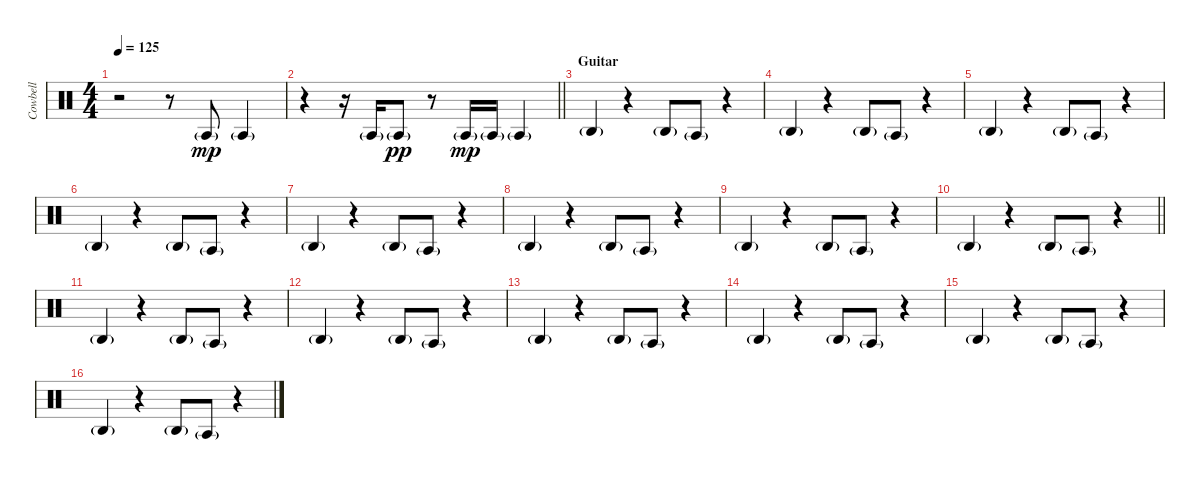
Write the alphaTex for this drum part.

\track ("Cowbell" "Cowbell") {instrument percussion}
\staff {score}
\articulation defaults
\ts (4 4)
\tempo 125
\clef neutral
\ks c
r.2{dy mp} r.8 "Agogo tow (hit)"{g}.8 "Agogo tow (hit)"{g}.4 |
\barLineRight lightlight
r.4 r.16 "Agogo tow (hit)"{g}.16 "Agogo tow (hit)"{g}.8{dy pp} r.8 "Agogo tow (hit)"{g}.16{dy mp} "Agogo tow (hit)"{g}.16 "Agogo tow (hit)"{g}.4 |
\section ("" "Guitar")
"Agogo high (hit)"{g}.4 r.4 "Agogo high (hit)"{g}.8 "Agogo tow (hit)"{g}.8 r.4 |
"Agogo high (hit)"{g}.4 r.4 "Agogo high (hit)"{g}.8 "Agogo tow (hit)"{g}.8 r.4 |
"Agogo high (hit)"{g}.4 r.4 "Agogo high (hit)"{g}.8 "Agogo tow (hit)"{g}.8 r.4 |
"Agogo high (hit)"{g}.4 r.4 "Agogo high (hit)"{g}.8 "Agogo tow (hit)"{g}.8 r.4 |
"Agogo high (hit)"{g}.4 r.4 "Agogo high (hit)"{g}.8 "Agogo tow (hit)"{g}.8 r.4 |
"Agogo high (hit)"{g}.4 r.4 "Agogo high (hit)"{g}.8 "Agogo tow (hit)"{g}.8 r.4 |
"Agogo high (hit)"{g}.4 r.4 "Agogo high (hit)"{g}.8 "Agogo tow (hit)"{g}.8 r.4 |
\barLineRight lightlight "Agogo high (hit)"{g}.4
r.4 "Agogo high (hit)"{g}.8 "Agogo tow (hit)"{g}.8 r.4 |
\section ("" "")
"Agogo high (hit)"{g}.4 r.4 "Agogo high (hit)"{g}.8 "Agogo tow (hit)"{g}.8 r.4 |
"Agogo high (hit)"{g}.4 r.4 "Agogo high (hit)"{g}.8 "Agogo tow (hit)"{g}.8 r.4 |
"Agogo high (hit)"{g}.4 r.4 "Agogo high (hit)"{g}.8 "Agogo tow (hit)"{g}.8 r.4 |
"Agogo high (hit)"{g}.4 r.4 "Agogo high (hit)"{g}.8 "Agogo tow (hit)"{g}.8 r.4 |
"Agogo high (hit)"{g}.4 r.4 "Agogo high (hit)"{g}.8 "Agogo tow (hit)"{g}.8 r.4 |
"Agogo high (hit)"{g}.4 r.4 "Agogo high (hit)"{g}.8 "Agogo tow (hit)"{g}.8 r.4
